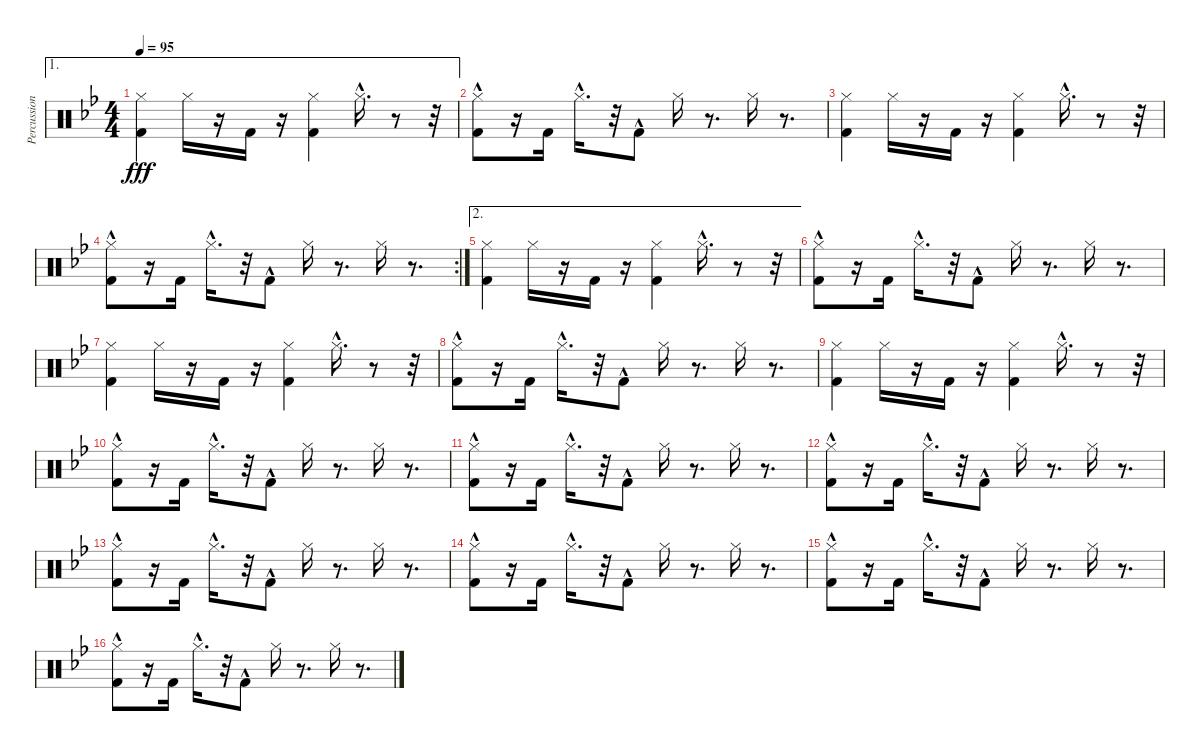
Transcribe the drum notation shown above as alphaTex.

\track ("Percussions" "Percussion") {instrument percussion}
\staff {score}
\articulation defaults
\ae 1
\ts (4 4)
\tempo 95
\clef neutral
\ks bb
("Kick (hit) 2" "Hi-Hat (closed)").4{dy fff} "Hi-Hat (closed)".16 r.16 "Kick (hit) 2".16 r.16 ("Kick (hit) 2" "Hi-Hat (closed)").4 "Hi-Hat (closed)"{hac}.16{d} r.8 r.32 |
("Kick (hit) 2"{hac} "Hi-Hat (closed)").8 r.16 "Kick (hit) 2".16 "Hi-Hat (closed)"{hac}.16{d} r.32 "Kick (hit) 2"{hac}.8 "Hi-Hat (closed)".16 r.8{d} "Hi-Hat (closed)".16 r.8{d} |
("Kick (hit) 2" "Hi-Hat (closed)").4 "Hi-Hat (closed)".16 r.16 "Kick (hit) 2".16 r.16 ("Kick (hit) 2" "Hi-Hat (closed)").4 "Hi-Hat (closed)"{hac}.16{d} r.8 r.32 |
\rc 2
("Kick (hit) 2"{hac} "Hi-Hat (closed)").8 r.16 "Kick (hit) 2".16 "Hi-Hat (closed)"{hac}.16{d} r.32 "Kick (hit) 2"{hac}.8 "Hi-Hat (closed)".16 r.8{d} "Hi-Hat (closed)".16 r.8{d} |
\ae 2
("Kick (hit) 2" "Hi-Hat (closed)").4 "Hi-Hat (closed)".16 r.16 "Kick (hit) 2".16 r.16 ("Kick (hit) 2" "Hi-Hat (closed)").4 "Hi-Hat (closed)"{hac}.16{d} r.8 r.32 |
("Kick (hit) 2"{hac} "Hi-Hat (closed)").8 r.16 "Kick (hit) 2".16 "Hi-Hat (closed)"{hac}.16{d} r.32 "Kick (hit) 2"{hac}.8 "Hi-Hat (closed)".16 r.8{d} "Hi-Hat (closed)".16 r.8{d} |
("Kick (hit) 2" "Hi-Hat (closed)").4 "Hi-Hat (closed)".16 r.16 "Kick (hit) 2".16 r.16 ("Kick (hit) 2" "Hi-Hat (closed)").4 "Hi-Hat (closed)"{hac}.16{d} r.8 r.32 |
("Kick (hit) 2"{hac} "Hi-Hat (closed)").8 r.16 "Kick (hit) 2".16 "Hi-Hat (closed)"{hac}.16{d} r.32 "Kick (hit) 2"{hac}.8 "Hi-Hat (closed)".16 r.8{d} "Hi-Hat (closed)".16 r.8{d} |
("Kick (hit) 2" "Hi-Hat (closed)").4 "Hi-Hat (closed)".16 r.16 "Kick (hit) 2".16 r.16 ("Kick (hit) 2" "Hi-Hat (closed)").4 "Hi-Hat (closed)"{hac}.16{d} r.8 r.32 |
("Kick (hit) 2"{hac} "Hi-Hat (closed)").8 r.16 "Kick (hit) 2".16 "Hi-Hat (closed)"{hac}.16{d} r.32 "Kick (hit) 2"{hac}.8 "Hi-Hat (closed)".16 r.8{d} "Hi-Hat (closed)".16 r.8{d} |
("Kick (hit) 2"{hac} "Hi-Hat (closed)").8 r.16 "Kick (hit) 2".16 "Hi-Hat (closed)"{hac}.16{d} r.32 "Kick (hit) 2"{hac}.8 "Hi-Hat (closed)".16 r.8{d} "Hi-Hat (closed)".16 r.8{d} |
("Kick (hit) 2"{hac} "Hi-Hat (closed)").8 r.16 "Kick (hit) 2".16 "Hi-Hat (closed)"{hac}.16{d} r.32 "Kick (hit) 2"{hac}.8 "Hi-Hat (closed)".16 r.8{d} "Hi-Hat (closed)".16 r.8{d} |
("Kick (hit) 2"{hac} "Hi-Hat (closed)").8 r.16 "Kick (hit) 2".16 "Hi-Hat (closed)"{hac}.16{d} r.32 "Kick (hit) 2"{hac}.8 "Hi-Hat (closed)".16 r.8{d} "Hi-Hat (closed)".16 r.8{d} |
("Kick (hit) 2"{hac} "Hi-Hat (closed)").8 r.16 "Kick (hit) 2".16 "Hi-Hat (closed)"{hac}.16{d} r.32 "Kick (hit) 2"{hac}.8 "Hi-Hat (closed)".16 r.8{d} "Hi-Hat (closed)".16 r.8{d} |
("Kick (hit) 2"{hac} "Hi-Hat (closed)").8 r.16 "Kick (hit) 2".16 "Hi-Hat (closed)"{hac}.16{d} r.32 "Kick (hit) 2"{hac}.8 "Hi-Hat (closed)".16 r.8{d} "Hi-Hat (closed)".16 r.8{d} |
("Kick (hit) 2"{hac} "Hi-Hat (closed)").8 r.16 "Kick (hit) 2".16 "Hi-Hat (closed)"{hac}.16{d} r.32 "Kick (hit) 2"{hac}.8 "Hi-Hat (closed)".16 r.8{d} "Hi-Hat (closed)".16 r.8{d}
